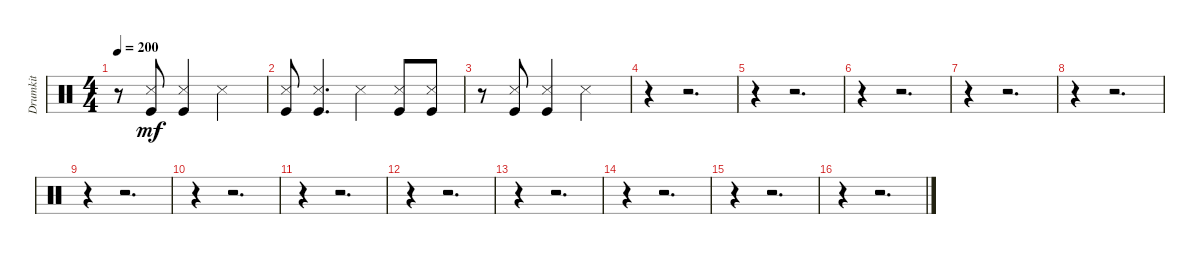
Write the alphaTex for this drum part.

\track ("Drumkit" "Drumkit") {instrument percussion}
\staff {score}
\articulation defaults
\ts (4 4)
\tempo 200
\clef neutral
\ks c
r.8{dy mf} ("Snare (side stick) 3" "Kick (hit)").8 ("Kick (hit)" "Snare (side stick) 3").4 "Snare (side stick) 3".2 |
("Snare (side stick) 3" "Kick (hit)").8 ("Snare (side stick) 3" "Kick (hit)").4{d} "Snare (side stick) 3".4 ("Snare (side stick) 3" "Kick (hit)").8 ("Snare (side stick) 3" "Kick (hit)").8 |
r.8 ("Snare (side stick) 3" "Kick (hit)").8 ("Kick (hit)" "Snare (side stick) 3").4 "Snare (side stick) 3".2 |
r.4 r.2{d} |
r.4 r.2{d} |
r.4 r.2{d} |
r.4 r.2{d} |
r.4 r.2{d} |
r.4 r.2{d} |
r.4 r.2{d} |
r.4 r.2{d} |
r.4 r.2{d} |
r.4 r.2{d} |
r.4 r.2{d} |
r.4 r.2{d} |
r.4 r.2{d}
